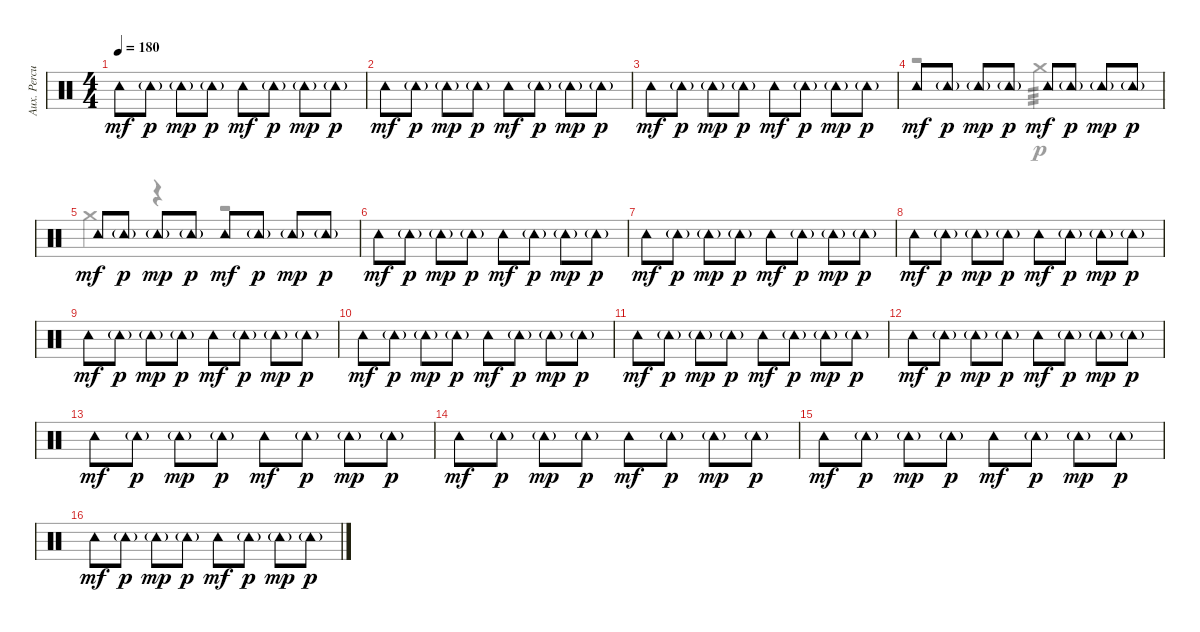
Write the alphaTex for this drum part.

\track ("Aux. Percussion" "Aux. Percu") {instrument percussion}
\staff {score}
\articulation defaults
\voice
\ts (4 4)
\tempo 180
\clef neutral
\ks c "Tambourine (hit)".8{dy mf} "Tambourine (hit)"{g}.8{dy p} "Tambourine (hit)"{g}.8{dy mp} "Tambourine (hit)"{g}.8{dy p} "Tambourine (hit)".8{dy mf} "Tambourine (hit)"{g}.8{dy p} "Tambourine (hit)"{g}.8{dy mp} "Tambourine (hit)"{g}.8{dy p}
|
"Tambourine (hit)".8{dy mf} "Tambourine (hit)"{g}.8{dy p} "Tambourine (hit)"{g}.8{dy mp} "Tambourine (hit)"{g}.8{dy p} "Tambourine (hit)".8{dy mf} "Tambourine (hit)"{g}.8{dy p} "Tambourine (hit)"{g}.8{dy mp} "Tambourine (hit)"{g}.8{dy p} |
"Tambourine (hit)".8{dy mf} "Tambourine (hit)"{g}.8{dy p} "Tambourine (hit)"{g}.8{dy mp} "Tambourine (hit)"{g}.8{dy p} "Tambourine (hit)".8{dy mf} "Tambourine (hit)"{g}.8{dy p} "Tambourine (hit)"{g}.8{dy mp} "Tambourine (hit)"{g}.8{dy p} |
"Tambourine (hit)".8{dy mf} "Tambourine (hit)"{g}.8{dy p} "Tambourine (hit)"{g}.8{dy mp} "Tambourine (hit)"{g}.8{dy p} "Tambourine (hit)".8{dy mf} "Tambourine (hit)"{g}.8{dy p} "Tambourine (hit)"{g}.8{dy mp} "Tambourine (hit)"{g}.8{dy p} |
"Tambourine (hit)".8{dy mf} "Tambourine (hit)"{g}.8{dy p} "Tambourine (hit)"{g}.8{dy mp} "Tambourine (hit)"{g}.8{dy p} "Tambourine (hit)".8{dy mf} "Tambourine (hit)"{g}.8{dy p} "Tambourine (hit)"{g}.8{dy mp} "Tambourine (hit)"{g}.8{dy p} |
"Tambourine (hit)".8{dy mf} "Tambourine (hit)"{g}.8{dy p} "Tambourine (hit)"{g}.8{dy mp} "Tambourine (hit)"{g}.8{dy p} "Tambourine (hit)".8{dy mf} "Tambourine (hit)"{g}.8{dy p} "Tambourine (hit)"{g}.8{dy mp} "Tambourine (hit)"{g}.8{dy p} |
"Tambourine (hit)".8{dy mf} "Tambourine (hit)"{g}.8{dy p} "Tambourine (hit)"{g}.8{dy mp} "Tambourine (hit)"{g}.8{dy p} "Tambourine (hit)".8{dy mf} "Tambourine (hit)"{g}.8{dy p} "Tambourine (hit)"{g}.8{dy mp} "Tambourine (hit)"{g}.8{dy p} |
"Tambourine (hit)".8{dy mf} "Tambourine (hit)"{g}.8{dy p} "Tambourine (hit)"{g}.8{dy mp} "Tambourine (hit)"{g}.8{dy p} "Tambourine (hit)".8{dy mf} "Tambourine (hit)"{g}.8{dy p} "Tambourine (hit)"{g}.8{dy mp} "Tambourine (hit)"{g}.8{dy p} |
"Tambourine (hit)".8{dy mf} "Tambourine (hit)"{g}.8{dy p} "Tambourine (hit)"{g}.8{dy mp} "Tambourine (hit)"{g}.8{dy p} "Tambourine (hit)".8{dy mf} "Tambourine (hit)"{g}.8{dy p} "Tambourine (hit)"{g}.8{dy mp} "Tambourine (hit)"{g}.8{dy p} |
"Tambourine (hit)".8{dy mf} "Tambourine (hit)"{g}.8{dy p} "Tambourine (hit)"{g}.8{dy mp} "Tambourine (hit)"{g}.8{dy p} "Tambourine (hit)".8{dy mf} "Tambourine (hit)"{g}.8{dy p} "Tambourine (hit)"{g}.8{dy mp} "Tambourine (hit)"{g}.8{dy p} |
"Tambourine (hit)".8{dy mf} "Tambourine (hit)"{g}.8{dy p} "Tambourine (hit)"{g}.8{dy mp} "Tambourine (hit)"{g}.8{dy p} "Tambourine (hit)".8{dy mf} "Tambourine (hit)"{g}.8{dy p} "Tambourine (hit)"{g}.8{dy mp} "Tambourine (hit)"{g}.8{dy p} |
"Tambourine (hit)".8{dy mf} "Tambourine (hit)"{g}.8{dy p} "Tambourine (hit)"{g}.8{dy mp} "Tambourine (hit)"{g}.8{dy p} "Tambourine (hit)".8{dy mf} "Tambourine (hit)"{g}.8{dy p} "Tambourine (hit)"{g}.8{dy mp} "Tambourine (hit)"{g}.8{dy p} |
"Tambourine (hit)".8{dy mf} "Tambourine (hit)"{g}.8{dy p} "Tambourine (hit)"{g}.8{dy mp} "Tambourine (hit)"{g}.8{dy p} "Tambourine (hit)".8{dy mf} "Tambourine (hit)"{g}.8{dy p} "Tambourine (hit)"{g}.8{dy mp} "Tambourine (hit)"{g}.8{dy p} |
"Tambourine (hit)".8{dy mf} "Tambourine (hit)"{g}.8{dy p} "Tambourine (hit)"{g}.8{dy mp} "Tambourine (hit)"{g}.8{dy p} "Tambourine (hit)".8{dy mf} "Tambourine (hit)"{g}.8{dy p} "Tambourine (hit)"{g}.8{dy mp} "Tambourine (hit)"{g}.8{dy p} |
"Tambourine (hit)".8{dy mf} "Tambourine (hit)"{g}.8{dy p} "Tambourine (hit)"{g}.8{dy mp} "Tambourine (hit)"{g}.8{dy p} "Tambourine (hit)".8{dy mf} "Tambourine (hit)"{g}.8{dy p} "Tambourine (hit)"{g}.8{dy mp} "Tambourine (hit)"{g}.8{dy p} |
"Tambourine (hit)".8{dy mf} "Tambourine (hit)"{g}.8{dy p} "Tambourine (hit)"{g}.8{dy mp} "Tambourine (hit)"{g}.8{dy p} "Tambourine (hit)".8{dy mf} "Tambourine (hit)"{g}.8{dy p} "Tambourine (hit)"{g}.8{dy mp} "Tambourine (hit)"{g}.8{dy p}
\voice
\clef neutral
\ottava regular
\simile none
\ks c
|
|
|
r.2 "Crash medium (hit)".2{tp 3} |
"Crash medium (hit)".4 r.4 r.2 |
|
|
|
|
|
|
|
|
|
|
